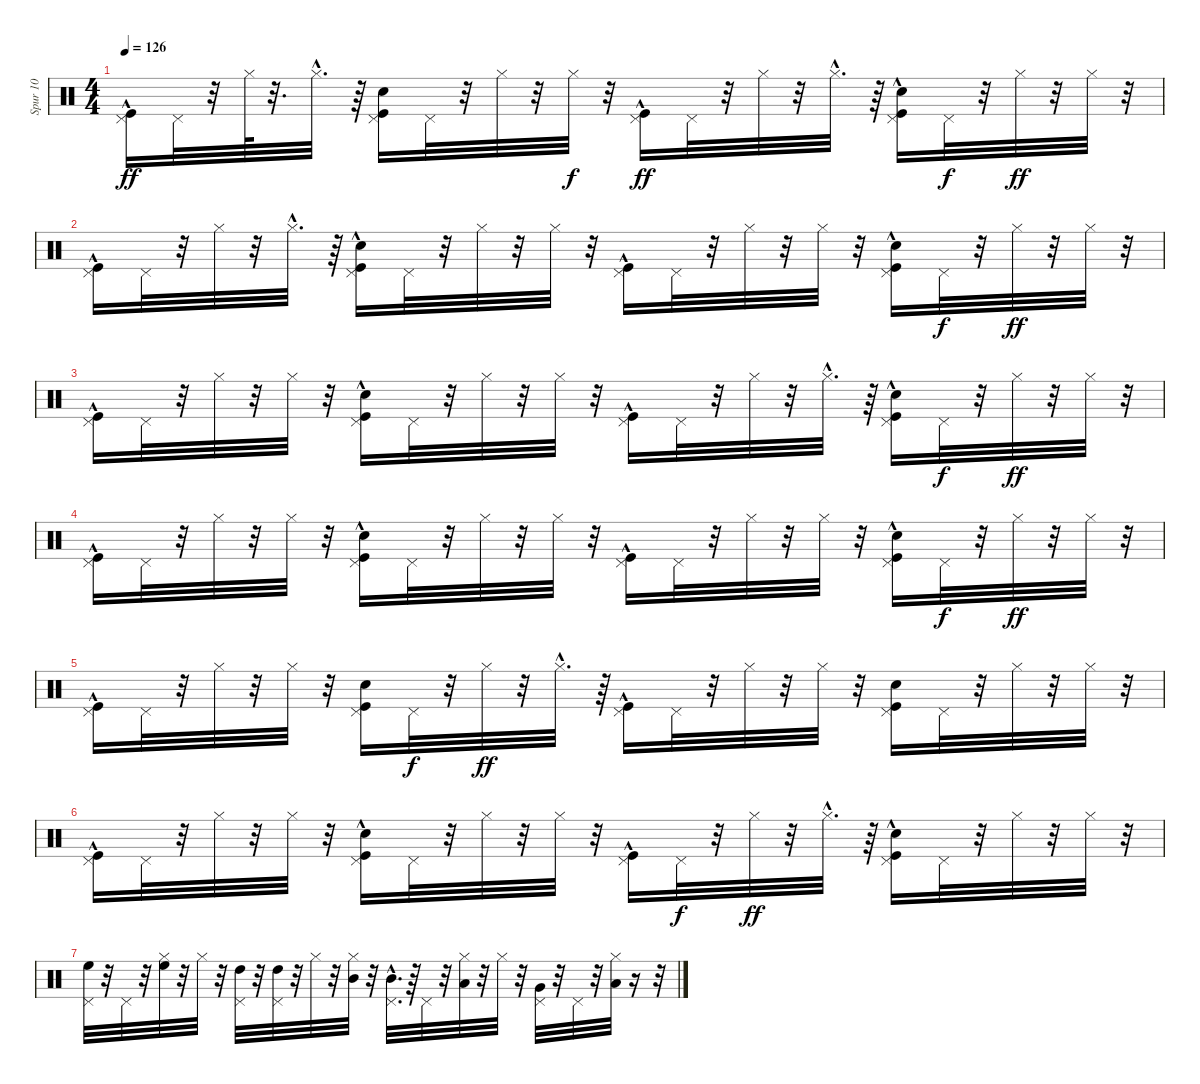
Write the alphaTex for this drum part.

\track ("Spur 10" "Spur 10") {instrument percussion}
\staff {score}
\articulation defaults
\ts (4 4)
\tempo 126
\clef neutral
\ks c
("Kick (hit)"{hac} "Pedal Hi-Hat (hit)").16{dy ff} "Pedal Hi-Hat (hit)".32 r.32 "Hi-Hat (closed)".64 r.32{d} "Hi-Hat (closed)"{hac}.32{d} r.64 ("Snare (hit) 2" "Kick (hit)" "Pedal Hi-Hat (hit)").16 "Pedal Hi-Hat (hit)".32 r.32 "Hi-Hat (closed)".32 r.32 "Hi-Hat (closed)".32{dy f} r.32 ("Kick (hit)"{hac} "Pedal Hi-Hat (hit)").16{dy ff} "Pedal Hi-Hat (hit)".32 r.32 "Hi-Hat (closed)".32 r.32 "Hi-Hat (closed)"{hac}.32{d} r.64 ("Snare (hit) 2"{hac} "Kick (hit)"{hac} "Pedal Hi-Hat (hit)").16 "Pedal Hi-Hat (hit)".32{dy f} r.32 "Hi-Hat (closed)".32{dy ff} r.32 "Hi-Hat (closed)".32 r.32 |
("Kick (hit)"{hac} "Pedal Hi-Hat (hit)").16 "Pedal Hi-Hat (hit)".32 r.32 "Hi-Hat (closed)".32 r.32 "Hi-Hat (closed)"{hac}.32{d} r.64 ("Snare (hit) 2"{hac} "Kick (hit)"{hac} "Pedal Hi-Hat (hit)").16 "Pedal Hi-Hat (hit)".32 r.32 "Hi-Hat (closed)".32 r.32 "Hi-Hat (closed)".32 r.32 ("Kick (hit)"{hac} "Pedal Hi-Hat (hit)").16 "Pedal Hi-Hat (hit)".32 r.32 "Hi-Hat (closed)".32 r.32 "Hi-Hat (closed)".32 r.32 ("Snare (hit) 2" "Kick (hit)"{hac} "Pedal Hi-Hat (hit)").16 "Pedal Hi-Hat (hit)".32{dy f} r.32 "Hi-Hat (closed)".32{dy ff} r.32 "Hi-Hat (closed)".32 r.32 |
("Kick (hit)"{hac} "Pedal Hi-Hat (hit)").16 "Pedal Hi-Hat (hit)".32 r.32 "Hi-Hat (closed)".32 r.32 "Hi-Hat (closed)".32 r.32 ("Kick (hit)"{hac} "Snare (hit) 2" "Pedal Hi-Hat (hit)").16 "Pedal Hi-Hat (hit)".32 r.32 "Hi-Hat (closed)".32 r.32 "Hi-Hat (closed)".32 r.32 ("Kick (hit)"{hac} "Pedal Hi-Hat (hit)").16 "Pedal Hi-Hat (hit)".32 r.32 "Hi-Hat (closed)".32 r.32 "Hi-Hat (closed)"{hac}.32{d} r.64 ("Snare (hit) 2" "Kick (hit)"{hac} "Pedal Hi-Hat (hit)").16 "Pedal Hi-Hat (hit)".32{dy f} r.32 "Hi-Hat (closed)".32{dy ff} r.32 "Hi-Hat (closed)".32 r.32 |
("Kick (hit)"{hac} "Pedal Hi-Hat (hit)").16 "Pedal Hi-Hat (hit)".32 r.32 "Hi-Hat (closed)".32 r.32 "Hi-Hat (closed)".32 r.32 ("Kick (hit)"{hac} "Snare (hit) 2"{hac} "Pedal Hi-Hat (hit)").16 "Pedal Hi-Hat (hit)".32 r.32 "Hi-Hat (closed)".32 r.32 "Hi-Hat (closed)".32 r.32 ("Kick (hit)"{hac} "Pedal Hi-Hat (hit)").16 "Pedal Hi-Hat (hit)".32 r.32 "Hi-Hat (closed)".32 r.32 "Hi-Hat (closed)".32 r.32 ("Kick (hit)"{hac} "Snare (hit) 2"{hac} "Pedal Hi-Hat (hit)").16 "Pedal Hi-Hat (hit)".32{dy f} r.32 "Hi-Hat (closed)".32{dy ff} r.32 "Hi-Hat (closed)".32 r.32 |
("Kick (hit)"{hac} "Pedal Hi-Hat (hit)").16 "Pedal Hi-Hat (hit)".32 r.32 "Hi-Hat (closed)".32 r.32 "Hi-Hat (closed)".32 r.32 ("Kick (hit)" "Snare (hit) 2" "Pedal Hi-Hat (hit)").16 "Pedal Hi-Hat (hit)".32{dy f} r.32 "Hi-Hat (closed)".32{dy ff} r.32 "Hi-Hat (closed)"{hac}.32{d} r.64 ("Kick (hit)"{hac} "Pedal Hi-Hat (hit)").16 "Pedal Hi-Hat (hit)".32 r.32 "Hi-Hat (closed)".32 r.32 "Hi-Hat (closed)".32 r.32 ("Kick (hit)" "Snare (hit) 2" "Pedal Hi-Hat (hit)").16 "Pedal Hi-Hat (hit)".32 r.32 "Hi-Hat (closed)".32 r.32 "Hi-Hat (closed)".32 r.32 |
("Kick (hit)"{hac} "Pedal Hi-Hat (hit)").16 "Pedal Hi-Hat (hit)".32 r.32 "Hi-Hat (closed)".32 r.32 "Hi-Hat (closed)".32 r.32 ("Snare (hit) 2"{hac} "Kick (hit)"{hac} "Pedal Hi-Hat (hit)").16 "Pedal Hi-Hat (hit)".32 r.32 "Hi-Hat (closed)".32 r.32 "Hi-Hat (closed)".32 r.32 ("Kick (hit)"{hac} "Pedal Hi-Hat (hit)").16 "Pedal Hi-Hat (hit)".32{dy f} r.32 "Hi-Hat (closed)".32{dy ff} r.32 "Hi-Hat (closed)"{hac}.32{d} r.64 ("Snare (hit) 2"{hac} "Kick (hit)" "Pedal Hi-Hat (hit)").16 "Pedal Hi-Hat (hit)".32 r.32 "Hi-Hat (closed)".32 r.32 "Hi-Hat (closed)".32 r.32 |
("High Floor Tom (hit)" "Pedal Hi-Hat (hit)").32 r.32 "Pedal Hi-Hat (hit)".32 r.32 ("High Floor Tom (hit)" "Hi-Hat (closed)").32 r.32 "Hi-Hat (closed)".32 r.32 ("High Tom (hit)" "Pedal Hi-Hat (hit)").32 r.32 ("High Tom (hit)" "Pedal Hi-Hat (hit)").32 r.32 "Hi-Hat (closed)".32 r.32 ("Mid Tom (hit)" "Hi-Hat (closed)").32 r.32 ("Mid Tom (hit)"{hac} "Pedal Hi-Hat (hit)").32{d} r.64 "Pedal Hi-Hat (hit)".32 r.32 ("Low Tom (hit)" "Hi-Hat (closed)").32 r.32 "Hi-Hat (closed)".32 r.32 ("Very Low Tom (hit)" "Pedal Hi-Hat (hit)").32 r.32 "Pedal Hi-Hat (hit)".32 r.32 ("Low Floor Tom (hit)" "Hi-Hat (closed)").32 r.16 r.32
